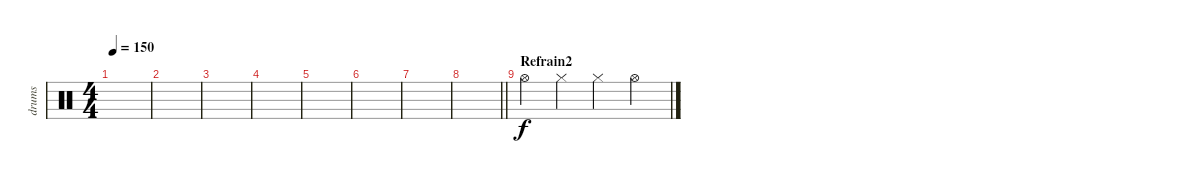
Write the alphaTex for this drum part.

\track ("drums" "drums") {instrument percussion}
\staff {score}
\articulation defaults
\ts (4 4)
\tempo 150
\clef neutral
\ks c
|
|
|
|
|
|
|
\barLineRight lightlight
|
\section ("" "Refrain2")
"Hi-Hat (open)".4 "Hi-Hat (closed)".4 "Hi-Hat (closed)".4 "Hi-Hat (open)".4
